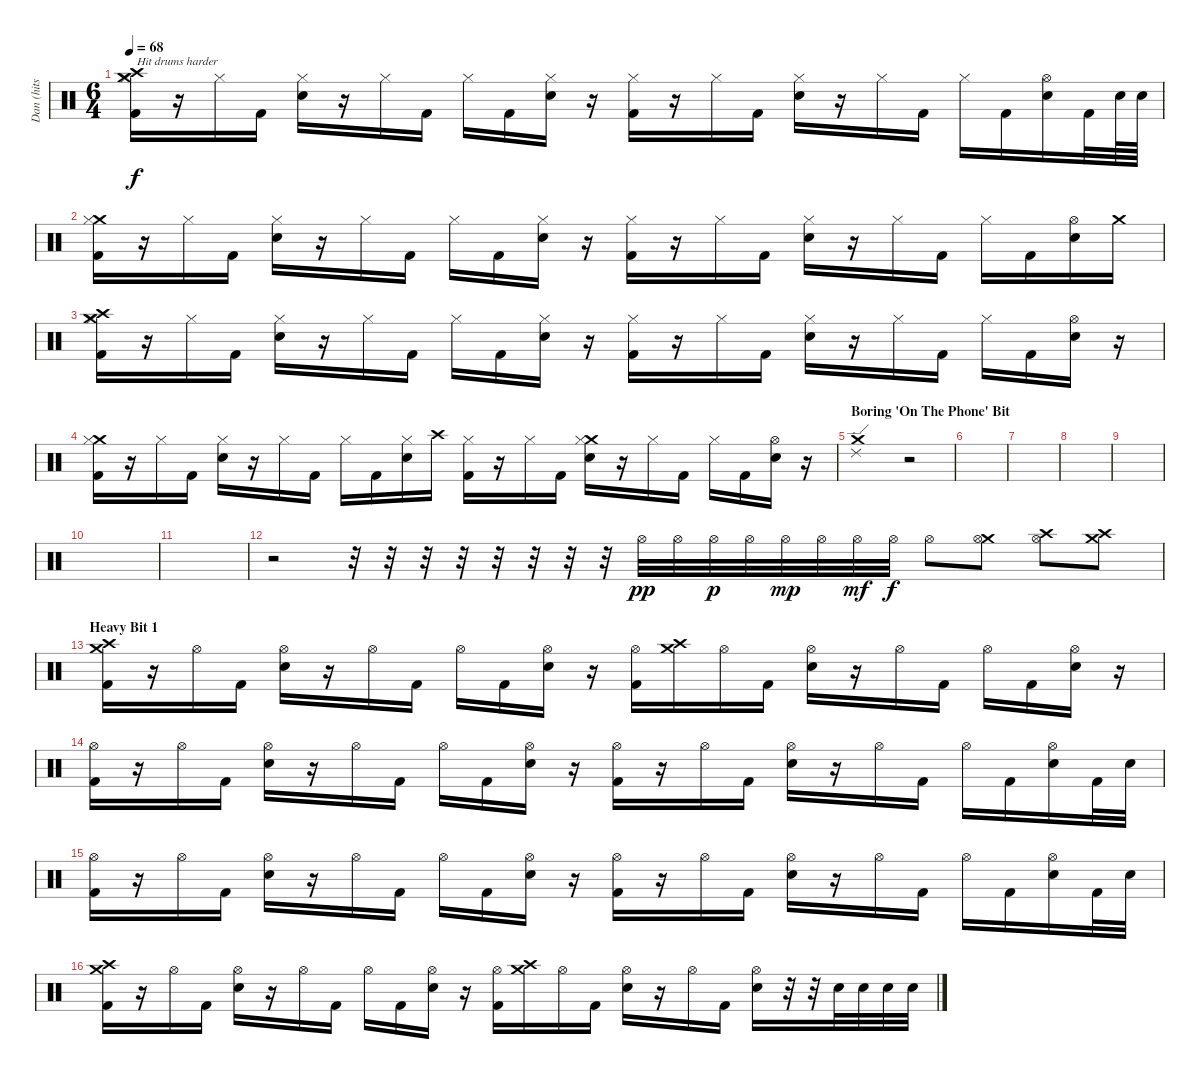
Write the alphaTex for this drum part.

\track ("Dan (hits stuff. hard)" "Dan (hits ") {instrument percussion}
\staff {score}
\articulation defaults
\ts (6 4)
\tempo 68
\clef neutral
\ks c
("Crash medium (hit)" "Crash high (hit)" "Hi-Hat (closed)" "Kick (hit) 2").16{txt "Hit drums harder" dy f volume 16} r.16 "Hi-Hat (closed)".16 "Kick (hit) 2".16 ("Hi-Hat (closed)" "Electric Snare (hit)").16 r.16 "Hi-Hat (closed)".16 "Kick (hit) 2".16 "Hi-Hat (closed)".16 "Kick (hit) 2".16 ("Hi-Hat (closed)" "Electric Snare (hit)").16 r.16 ("Hi-Hat (closed)" "Kick (hit) 2").16 r.16 "Hi-Hat (closed)".16 "Kick (hit) 2".16 ("Hi-Hat (closed)" "Electric Snare (hit)").16 r.16 "Hi-Hat (closed)".16 "Kick (hit) 2".16 "Hi-Hat (closed)".16 "Kick (hit) 2".16 ("Hi-Hat (open)" "Electric Snare (hit)").16 "Kick (hit) 2".32 "Electric Snare (hit)".64 "Electric Snare (hit)".64 |
("Crash medium (hit)" "Hi-Hat (closed)" "Kick (hit) 2").16 r.16 "Hi-Hat (closed)".16 "Kick (hit) 2".16 ("Hi-Hat (closed)" "Electric Snare (hit)").16 r.16 "Hi-Hat (closed)".16 "Kick (hit) 2".16 "Hi-Hat (closed)".16 "Kick (hit) 2".16 ("Hi-Hat (closed)" "Electric Snare (hit)").16 r.16 ("Hi-Hat (closed)" "Kick (hit) 2").16 r.16 "Hi-Hat (closed)".16 "Kick (hit) 2".16 ("Hi-Hat (closed)" "Electric Snare (hit)").16 r.16 "Hi-Hat (closed)".16 "Kick (hit) 2".16 "Hi-Hat (closed)".16 "Kick (hit) 2".16 ("Hi-Hat (open)" "Electric Snare (hit)").16 "Crash medium (hit)".16 |
("Crash medium (hit)" "Crash high (hit)" "Hi-Hat (closed)" "Kick (hit) 2").16 r.16 "Hi-Hat (closed)".16 "Kick (hit) 2".16 ("Hi-Hat (closed)" "Electric Snare (hit)").16 r.16 "Hi-Hat (closed)".16 "Kick (hit) 2".16 "Hi-Hat (closed)".16 "Kick (hit) 2".16 ("Hi-Hat (closed)" "Electric Snare (hit)").16 r.16 ("Hi-Hat (closed)" "Kick (hit) 2").16 r.16 "Hi-Hat (closed)".16 "Kick (hit) 2".16 ("Hi-Hat (closed)" "Electric Snare (hit)").16 r.16 "Hi-Hat (closed)".16 "Kick (hit) 2".16 "Hi-Hat (closed)".16 "Kick (hit) 2".16 ("Hi-Hat (open)" "Electric Snare (hit)").16 r.16 |
("Crash medium (hit)" "Hi-Hat (closed)" "Kick (hit) 2").16 r.16 "Hi-Hat (closed)".16 "Kick (hit) 2".16 ("Hi-Hat (closed)" "Electric Snare (hit)").16 r.16 "Hi-Hat (closed)".16 "Kick (hit) 2".16 "Hi-Hat (closed)".16 "Kick (hit) 2".16 ("Hi-Hat (closed)" "Electric Snare (hit)").16 "Crash high (hit)".16 ("Hi-Hat (closed)" "Kick (hit) 2").16 r.16 "Hi-Hat (closed)".16 "Kick (hit) 2".16 ("Crash medium (hit)" "Hi-Hat (closed)" "Electric Snare (hit)").16 r.16 "Hi-Hat (closed)".16 "Kick (hit) 2".16 "Hi-Hat (closed)".16 "Kick (hit) 2".16 ("Hi-Hat (open)" "Electric Snare (hit)").16 r.16 |
\section ("" "Boring 'On The Phone' Bit")
("Ride (edge) 2" "Crash medium (hit)").1 r.2 |
|
|
|
|
|
|
r.2 r.32 r.32 r.32 r.32 r.32 r.32 r.32 r.32 "Hi-Hat (open)".32{dy pp} "Hi-Hat (open)".32 "Hi-Hat (open)".32{dy p} "Hi-Hat (open)".32 "Hi-Hat (open)".32{dy mp} "Hi-Hat (open)".32 "Hi-Hat (open)".32{dy mf} "Hi-Hat (open)".32{dy f} "Hi-Hat (open)".8 ("Crash medium (hit)" "Hi-Hat (open)").8 ("Crash high (hit)" "Hi-Hat (open)").8 ("Crash medium (hit)" "Crash high (hit)").8 |
\section ("" "Heavy Bit 1")
("Crash medium (hit)" "Crash high (hit)" "Kick (hit) 2").16 r.16 "Hi-Hat (open)".16 "Kick (hit) 2".16 ("Hi-Hat (open)" "Electric Snare (hit)").16 r.16 "Hi-Hat (open)".16 "Kick (hit) 2".16 "Hi-Hat (open)".16 "Kick (hit) 2".16 ("Hi-Hat (open)" "Electric Snare (hit)").16 r.16 ("Hi-Hat (open)" "Kick (hit) 2").16 ("Crash medium (hit)" "Crash high (hit)").16 "Hi-Hat (open)".16 "Kick (hit) 2".16 ("Hi-Hat (open)" "Electric Snare (hit)").16 r.16 "Hi-Hat (open)".16 "Kick (hit) 2".16 "Hi-Hat (open)".16 "Kick (hit) 2".16 ("Hi-Hat (open)" "Electric Snare (hit)").16 r.16 |
("Hi-Hat (open)" "Kick (hit) 2").16 r.16 "Hi-Hat (open)".16 "Kick (hit) 2".16 ("Hi-Hat (open)" "Electric Snare (hit)").16 r.16 "Hi-Hat (open)".16 "Kick (hit) 2".16 "Hi-Hat (open)".16 "Kick (hit) 2".16 ("Hi-Hat (open)" "Electric Snare (hit)").16 r.16 ("Hi-Hat (open)" "Kick (hit) 2").16 r.16 "Hi-Hat (open)".16 "Kick (hit) 2".16 ("Hi-Hat (open)" "Electric Snare (hit)").16 r.16 "Hi-Hat (open)".16 "Kick (hit) 2".16 "Hi-Hat (open)".16 "Kick (hit) 2".16 ("Hi-Hat (open)" "Electric Snare (hit)").16 "Kick (hit) 2".32 "Electric Snare (hit)".32 |
("Hi-Hat (open)" "Kick (hit) 2").16 r.16 "Hi-Hat (open)".16 "Kick (hit) 2".16 ("Hi-Hat (open)" "Electric Snare (hit)").16 r.16 "Hi-Hat (open)".16 "Kick (hit) 2".16 "Hi-Hat (open)".16 "Kick (hit) 2".16 ("Hi-Hat (open)" "Electric Snare (hit)").16 r.16 ("Hi-Hat (open)" "Kick (hit) 2").16 r.16 "Hi-Hat (open)".16 "Kick (hit) 2".16 ("Hi-Hat (open)" "Electric Snare (hit)").16 r.16 "Hi-Hat (open)".16 "Kick (hit) 2".16 "Hi-Hat (open)".16 "Kick (hit) 2".16 ("Hi-Hat (open)" "Electric Snare (hit)").16 "Kick (hit) 2".32 "Electric Snare (hit)".32 |
("Crash medium (hit)" "Crash high (hit)" "Kick (hit) 2").16 r.16 "Hi-Hat (open)".16 "Kick (hit) 2".16 ("Hi-Hat (open)" "Electric Snare (hit)").16 r.16 "Hi-Hat (open)".16 "Kick (hit) 2".16 "Hi-Hat (open)".16 "Kick (hit) 2".16 ("Hi-Hat (open)" "Electric Snare (hit)").16 r.16 ("Hi-Hat (open)" "Kick (hit) 2").16 ("Crash medium (hit)" "Crash high (hit)").16 "Hi-Hat (open)".16 "Kick (hit) 2".16 ("Hi-Hat (open)" "Electric Snare (hit)").16 r.16 "Hi-Hat (open)".16 "Kick (hit) 2".16 ("Hi-Hat (open)" "Electric Snare (hit)").16 r.32 r.32 "Electric Snare (hit)".32 "Electric Snare (hit)".32 "Electric Snare (hit)".32 "Electric Snare (hit)".32
